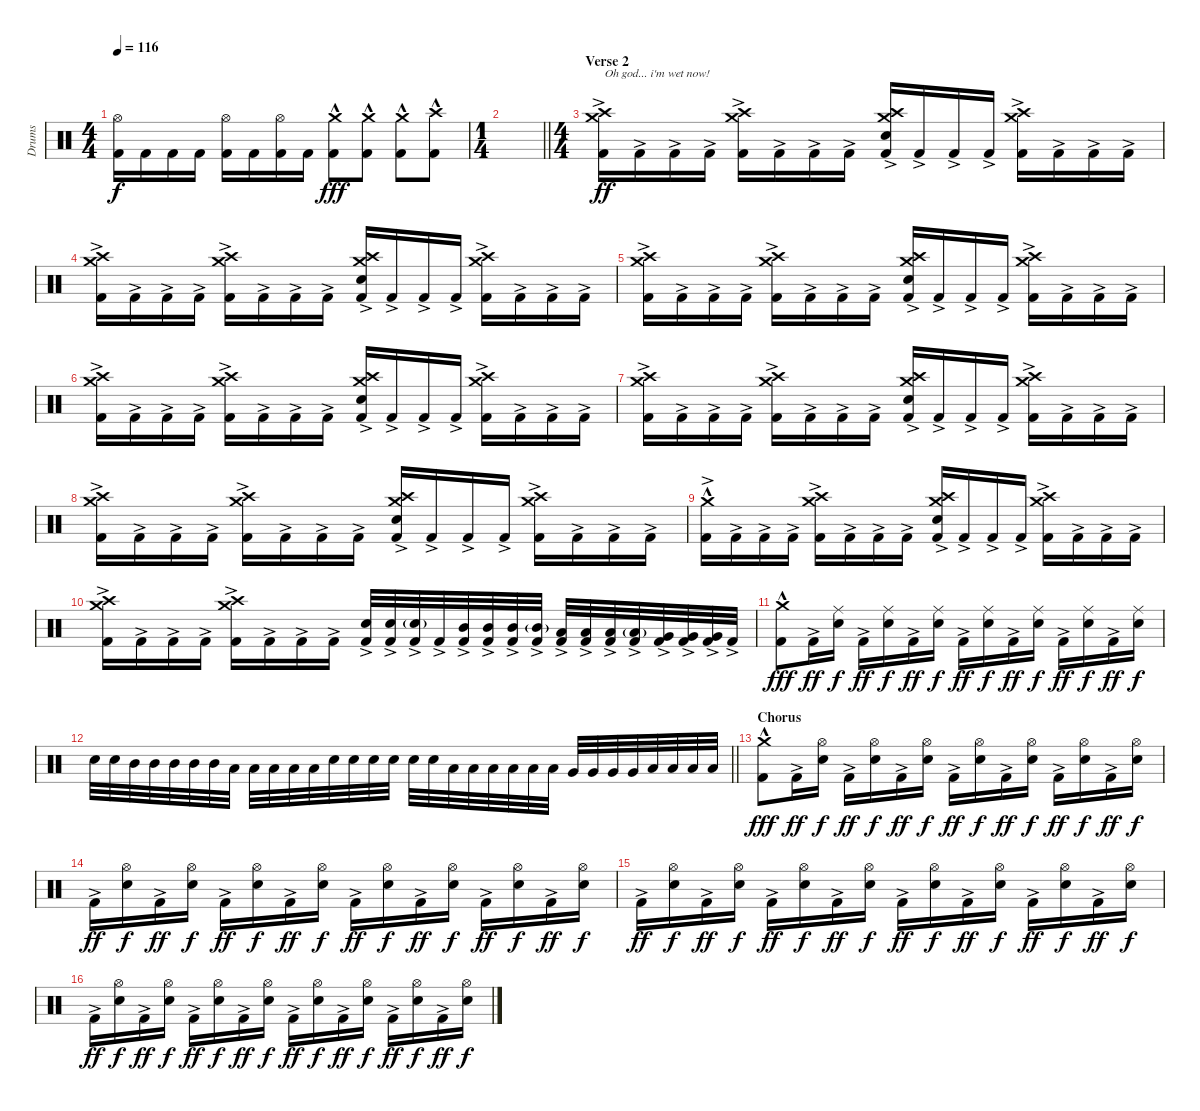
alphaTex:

\track ("Drums" "Drums") {instrument percussion}
\staff {score}
\articulation defaults
\ts (4 4)
\tempo 116
\clef neutral
\ks c
("Hi-Hat (open)" "Kick (hit) 2").16{dy f} "Kick (hit) 2".16 "Kick (hit) 2".16 "Kick (hit) 2".16 ("Hi-Hat (open)" "Kick (hit) 2").16 "Kick (hit) 2".16 ("Hi-Hat (open)" "Kick (hit) 2").16 "Kick (hit) 2".16 ("Crash medium (hit)" "Kick (hit) 2"{hac}).8{dy fff} ("Crash medium (hit)" "Kick (hit) 2"{hac}).8 ("Crash medium (hit)" "Kick (hit) 2"{hac}).8 ("Crash high (hit)" "Kick (hit) 2"{hac}).8 |
\ts (1 4)
\barLineRight lightlight
|
\ts (4 4)
\section ("" "Verse 2")
("Crash high (hit)" "Crash medium (hit)" "Kick (hit) 2"{ac}).16{txt "Oh god... i'm wet now!" dy ff} "Kick (hit) 2"{ac}.16 "Kick (hit) 2"{ac}.16 "Kick (hit) 2"{ac}.16 ("Crash high (hit)" "Crash medium (hit)" "Kick (hit) 2"{ac}).16 "Kick (hit) 2"{ac}.16 "Kick (hit) 2"{ac}.16 "Kick (hit) 2"{ac}.16 ("Crash high (hit)" "Crash medium (hit)" "Electric Snare (hit)" "Kick (hit) 2"{ac}).16 "Kick (hit) 2"{ac}.16 "Kick (hit) 2"{ac}.16 "Kick (hit) 2"{ac}.16 ("Crash high (hit)" "Crash medium (hit)" "Kick (hit) 2"{ac}).16 "Kick (hit) 2"{ac}.16 "Kick (hit) 2"{ac}.16 "Kick (hit) 2"{ac}.16 |
("Crash high (hit)" "Crash medium (hit)" "Kick (hit) 2"{ac}).16 "Kick (hit) 2"{ac}.16 "Kick (hit) 2"{ac}.16 "Kick (hit) 2"{ac}.16 ("Crash high (hit)" "Crash medium (hit)" "Kick (hit) 2"{ac}).16 "Kick (hit) 2"{ac}.16 "Kick (hit) 2"{ac}.16 "Kick (hit) 2"{ac}.16 ("Crash high (hit)" "Crash medium (hit)" "Electric Snare (hit)" "Kick (hit) 2"{ac}).16 "Kick (hit) 2"{ac}.16 "Kick (hit) 2"{ac}.16 "Kick (hit) 2"{ac}.16 ("Crash high (hit)" "Crash medium (hit)" "Kick (hit) 2"{ac}).16 "Kick (hit) 2"{ac}.16 "Kick (hit) 2"{ac}.16 "Kick (hit) 2"{ac}.16 |
("Crash high (hit)" "Crash medium (hit)" "Kick (hit) 2"{ac}).16 "Kick (hit) 2"{ac}.16 "Kick (hit) 2"{ac}.16 "Kick (hit) 2"{ac}.16 ("Crash high (hit)" "Crash medium (hit)" "Kick (hit) 2"{ac}).16 "Kick (hit) 2"{ac}.16 "Kick (hit) 2"{ac}.16 "Kick (hit) 2"{ac}.16 ("Crash high (hit)" "Crash medium (hit)" "Electric Snare (hit)" "Kick (hit) 2"{ac}).16 "Kick (hit) 2"{ac}.16 "Kick (hit) 2"{ac}.16 "Kick (hit) 2"{ac}.16 ("Crash high (hit)" "Crash medium (hit)" "Kick (hit) 2"{ac}).16 "Kick (hit) 2"{ac}.16 "Kick (hit) 2"{ac}.16 "Kick (hit) 2"{ac}.16 |
("Crash high (hit)" "Crash medium (hit)" "Kick (hit) 2"{ac}).16 "Kick (hit) 2"{ac}.16 "Kick (hit) 2"{ac}.16 "Kick (hit) 2"{ac}.16 ("Crash high (hit)" "Crash medium (hit)" "Kick (hit) 2"{ac}).16 "Kick (hit) 2"{ac}.16 "Kick (hit) 2"{ac}.16 "Kick (hit) 2"{ac}.16 ("Crash high (hit)" "Crash medium (hit)" "Electric Snare (hit)" "Kick (hit) 2"{ac}).16 "Kick (hit) 2"{ac}.16 "Kick (hit) 2"{ac}.16 "Kick (hit) 2"{ac}.16 ("Crash high (hit)" "Crash medium (hit)" "Kick (hit) 2"{ac}).16 "Kick (hit) 2"{ac}.16 "Kick (hit) 2"{ac}.16 "Kick (hit) 2"{ac}.16 |
("Crash high (hit)"{ac} "Crash medium (hit)"{ac} "Kick (hit) 2"{ac}).16 "Kick (hit) 2"{ac}.16 "Kick (hit) 2"{ac}.16 "Kick (hit) 2"{ac}.16 ("Crash high (hit)" "Crash medium (hit)" "Kick (hit) 2"{ac}).16 "Kick (hit) 2"{ac}.16 "Kick (hit) 2"{ac}.16 "Kick (hit) 2"{ac}.16 ("Crash high (hit)" "Crash medium (hit)" "Electric Snare (hit)" "Kick (hit) 2"{ac}).16 "Kick (hit) 2"{ac}.16 "Kick (hit) 2"{ac}.16 "Kick (hit) 2"{ac}.16 ("Crash high (hit)" "Crash medium (hit)" "Kick (hit) 2"{ac}).16 "Kick (hit) 2"{ac}.16 "Kick (hit) 2"{ac}.16 "Kick (hit) 2"{ac}.16 |
("Crash high (hit)" "Crash medium (hit)" "Kick (hit) 2"{ac}).16 "Kick (hit) 2"{ac}.16 "Kick (hit) 2"{ac}.16 "Kick (hit) 2"{ac}.16 ("Crash high (hit)" "Crash medium (hit)" "Kick (hit) 2"{ac}).16 "Kick (hit) 2"{ac}.16 "Kick (hit) 2"{ac}.16 "Kick (hit) 2"{ac}.16 ("Crash high (hit)" "Crash medium (hit)" "Electric Snare (hit)" "Kick (hit) 2"{ac}).16 "Kick (hit) 2"{ac}.16 "Kick (hit) 2"{ac}.16 "Kick (hit) 2"{ac}.16 ("Crash high (hit)" "Crash medium (hit)" "Kick (hit) 2"{ac}).16 "Kick (hit) 2"{ac}.16 "Kick (hit) 2"{ac}.16 "Kick (hit) 2"{ac}.16 |
("Crash medium (hit)"{hac} "Kick (hit) 2"{ac}).16 "Kick (hit) 2"{ac}.16 "Kick (hit) 2"{ac}.16 "Kick (hit) 2"{ac}.16 ("Crash high (hit)" "Crash medium (hit)" "Kick (hit) 2"{ac}).16 "Kick (hit) 2"{ac}.16 "Kick (hit) 2"{ac}.16 "Kick (hit) 2"{ac}.16 ("Crash high (hit)" "Crash medium (hit)" "Electric Snare (hit)" "Kick (hit) 2"{ac}).16 "Kick (hit) 2"{ac}.16 "Kick (hit) 2"{ac}.16 "Kick (hit) 2"{ac}.16 ("Crash high (hit)" "Crash medium (hit)" "Kick (hit) 2"{ac}).16 "Kick (hit) 2"{ac}.16 "Kick (hit) 2"{ac}.16 "Kick (hit) 2"{ac}.16 |
("Crash high (hit)" "Crash medium (hit)" "Kick (hit) 2"{ac}).16 "Kick (hit) 2"{ac}.16 "Kick (hit) 2"{ac}.16 "Kick (hit) 2"{ac}.16 ("Crash high (hit)" "Crash medium (hit)" "Kick (hit) 2"{ac}).16 "Kick (hit) 2"{ac}.16 "Kick (hit) 2"{ac}.16 "Kick (hit) 2"{ac}.16 ("Electric Snare (hit)" "Kick (hit) 2"{ac}).32 ("Electric Snare (hit)" "Kick (hit) 2"{ac}).32 ("Electric Snare (hit)"{g} "Kick (hit) 2"{ac}).32 "Kick (hit) 2"{ac}.32 ("Mid Tom (hit)"{ac} "Kick (hit) 2"{ac}).32 ("Mid Tom (hit)"{ac} "Kick (hit) 2"{ac}).32 ("Mid Tom (hit)"{ac} "Kick (hit) 2"{ac}).32 ("Mid Tom (hit)"{g} "Kick (hit) 2"{ac}).32 ("Low Tom (hit)"{ac} "Kick (hit) 2"{ac}).32 ("Low Tom (hit)"{ac} "Kick (hit) 2"{ac}).32 ("Low Tom (hit)"{ac} "Kick (hit) 2"{ac}).32 ("Low Tom (hit)"{g} "Kick (hit) 2"{ac}).32 ("Very Low Tom (hit)"{ac} "Kick (hit) 2"{ac}).32 ("Very Low Tom (hit)"{ac} "Kick (hit) 2"{ac}).32 ("Very Low Tom (hit)"{ac} "Kick (hit) 2"{ac}).32 "Kick (hit) 2"{ac}.32 |
("Crash medium (hit)" "Kick (hit) 2"{hac}).8{dy fff} "Kick (hit) 2"{ac}.16{dy ff} ("Electric Snare (hit)" "Ride (middle)").16{dy f} "Kick (hit) 2"{ac}.16{dy ff} ("Electric Snare (hit)" "Ride (middle)").16{dy f} "Kick (hit) 2"{ac}.16{dy ff} ("Electric Snare (hit)" "Ride (middle)").16{dy f} "Kick (hit) 2"{ac}.16{dy ff} ("Electric Snare (hit)" "Ride (middle)").16{dy f} "Kick (hit) 2"{ac}.16{dy ff} ("Electric Snare (hit)" "Ride (middle)").16{dy f} "Kick (hit) 2"{ac}.16{dy ff} ("Electric Snare (hit)" "Ride (middle)").16{dy f} "Kick (hit) 2"{ac}.16{dy ff} ("Electric Snare (hit)" "Ride (middle)").16{dy f} |
\barLineRight lightlight "Electric Snare (hit)".32 "Electric Snare (hit)".32 "Mid Tom (hit)".32 "Mid Tom (hit)".32 "Mid Tom (hit)".32 "Mid Tom (hit)".32 "Mid Tom (hit)".32 "Low Tom (hit)".32 "Low Tom (hit)".32 "Low Tom (hit)".32 "Low Tom (hit)".32 "Low Tom (hit)".32 "Electric Snare (hit)".32 "Electric Snare (hit)".32 "Electric Snare (hit)".32 "Electric Snare (hit)".32 "Electric Snare (hit)".32 "Electric Snare (hit)".32 "Low Tom (hit)".32 "Low Tom (hit)".32 "Low Tom (hit)".32 "Low Tom (hit)".32 "Low Tom (hit)".32 "Low Tom (hit)".32 "Very Low Tom (hit)".32 "Very Low Tom (hit)".32 "Very Low Tom (hit)".32 "Very Low Tom (hit)".32 "Low Floor Tom (hit)".32 "Low Floor Tom (hit)".32 "Low Floor Tom (hit)".32 "Low Floor Tom (hit)".32
|
\section ("" "Chorus")
("Crash medium (hit)" "Kick (hit) 2"{hac}).8{dy fff} "Kick (hit) 2"{ac}.16{dy ff} ("Electric Snare (hit)" "Hi-Hat (open)").16{dy f} "Kick (hit) 2"{ac}.16{dy ff} ("Electric Snare (hit)" "Hi-Hat (open)").16{dy f} "Kick (hit) 2"{ac}.16{dy ff} ("Electric Snare (hit)" "Hi-Hat (open)").16{dy f} "Kick (hit) 2"{ac}.16{dy ff} ("Electric Snare (hit)" "Hi-Hat (open)").16{dy f} "Kick (hit) 2"{ac}.16{dy ff} ("Electric Snare (hit)" "Hi-Hat (open)").16{dy f} "Kick (hit) 2"{ac}.16{dy ff} ("Electric Snare (hit)" "Hi-Hat (open)").16{dy f} "Kick (hit) 2"{ac}.16{dy ff} ("Electric Snare (hit)" "Hi-Hat (open)").16{dy f} |
"Kick (hit) 2"{ac}.16{dy ff} ("Electric Snare (hit)" "Hi-Hat (open)").16{dy f} "Kick (hit) 2"{ac}.16{dy ff} ("Electric Snare (hit)" "Hi-Hat (open)").16{dy f} "Kick (hit) 2"{ac}.16{dy ff} ("Electric Snare (hit)" "Hi-Hat (open)").16{dy f} "Kick (hit) 2"{ac}.16{dy ff} ("Electric Snare (hit)" "Hi-Hat (open)").16{dy f} "Kick (hit) 2"{ac}.16{dy ff} ("Electric Snare (hit)" "Hi-Hat (open)").16{dy f} "Kick (hit) 2"{ac}.16{dy ff} ("Electric Snare (hit)" "Hi-Hat (open)").16{dy f} "Kick (hit) 2"{ac}.16{dy ff} ("Electric Snare (hit)" "Hi-Hat (open)").16{dy f} "Kick (hit) 2"{ac}.16{dy ff} ("Electric Snare (hit)" "Hi-Hat (open)").16{dy f} |
"Kick (hit) 2"{ac}.16{dy ff} ("Electric Snare (hit)" "Hi-Hat (open)").16{dy f} "Kick (hit) 2"{ac}.16{dy ff} ("Electric Snare (hit)" "Hi-Hat (open)").16{dy f} "Kick (hit) 2"{ac}.16{dy ff} ("Electric Snare (hit)" "Hi-Hat (open)").16{dy f} "Kick (hit) 2"{ac}.16{dy ff} ("Electric Snare (hit)" "Hi-Hat (open)").16{dy f} "Kick (hit) 2"{ac}.16{dy ff} ("Electric Snare (hit)" "Hi-Hat (open)").16{dy f} "Kick (hit) 2"{ac}.16{dy ff} ("Electric Snare (hit)" "Hi-Hat (open)").16{dy f} "Kick (hit) 2"{ac}.16{dy ff} ("Electric Snare (hit)" "Hi-Hat (open)").16{dy f} "Kick (hit) 2"{ac}.16{dy ff} ("Electric Snare (hit)" "Hi-Hat (open)").16{dy f} |
"Kick (hit) 2"{ac}.16{dy ff} ("Electric Snare (hit)" "Hi-Hat (open)").16{dy f} "Kick (hit) 2"{ac}.16{dy ff} ("Electric Snare (hit)" "Hi-Hat (open)").16{dy f} "Kick (hit) 2"{ac}.16{dy ff} ("Electric Snare (hit)" "Hi-Hat (open)").16{dy f} "Kick (hit) 2"{ac}.16{dy ff} ("Electric Snare (hit)" "Hi-Hat (open)").16{dy f} "Kick (hit) 2"{ac}.16{dy ff} ("Electric Snare (hit)" "Hi-Hat (open)").16{dy f} "Kick (hit) 2"{ac}.16{dy ff} ("Electric Snare (hit)" "Hi-Hat (open)").16{dy f} "Kick (hit) 2"{ac}.16{dy ff} ("Electric Snare (hit)" "Hi-Hat (open)").16{dy f} "Kick (hit) 2"{ac}.16{dy ff} ("Electric Snare (hit)" "Hi-Hat (open)").16{dy f}
